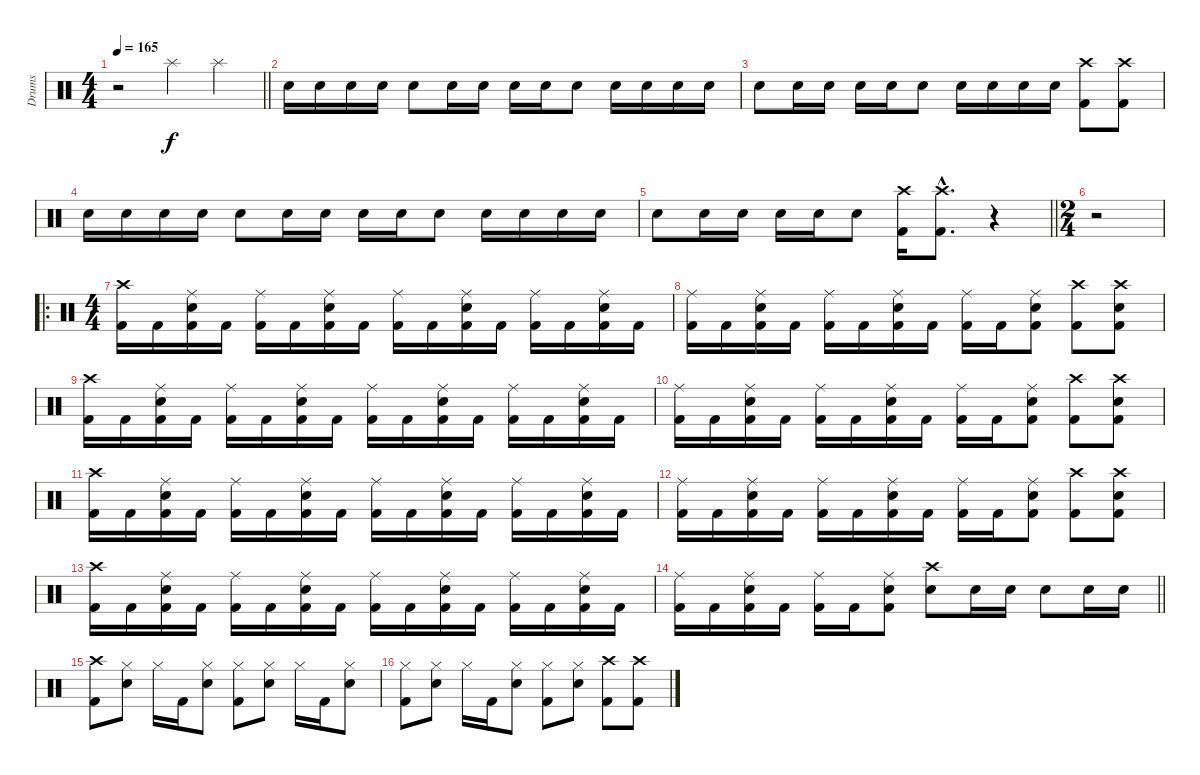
\track ("Drums" "Drums") {instrument percussion}
\staff {score}
\articulation defaults
\ts (4 4)
\tempo 165
\clef neutral
\barLineRight lightlight
\ks c
r.2{dy f} "Splash (hit)".4 "Splash (hit)".4 |
"Snare (hit) 2".16 "Snare (hit) 2".16 "Snare (hit) 2".16 "Snare (hit) 2".16 "Snare (hit) 2".8 "Snare (hit) 2".16 "Snare (hit) 2".16 "Snare (hit) 2".16 "Snare (hit) 2".16 "Snare (hit) 2".8 "Snare (hit) 2".16 "Snare (hit) 2".16 "Snare (hit) 2".16 "Snare (hit) 2".16 |
"Snare (hit) 2".8 "Snare (hit) 2".16 "Snare (hit) 2".16 "Snare (hit) 2".16 "Snare (hit) 2".16 "Snare (hit) 2".8 "Snare (hit) 2".16 "Snare (hit) 2".16 "Snare (hit) 2".16 "Snare (hit) 2".16 ("Crash high (hit)" "Kick (hit) 2").8 ("Crash high (hit)" "Kick (hit) 2").8 |
"Snare (hit) 2".16 "Snare (hit) 2".16 "Snare (hit) 2".16 "Snare (hit) 2".16 "Snare (hit) 2".8 "Snare (hit) 2".16 "Snare (hit) 2".16 "Snare (hit) 2".16 "Snare (hit) 2".16 "Snare (hit) 2".8 "Snare (hit) 2".16 "Snare (hit) 2".16 "Snare (hit) 2".16 "Snare (hit) 2".16 |
\barLineRight lightlight "Snare (hit) 2".8 "Snare (hit) 2".16 "Snare (hit) 2".16 "Snare (hit) 2".16 "Snare (hit) 2".16 "Snare (hit) 2".8
("Crash high (hit)" "Kick (hit) 2").16 ("Crash high (hit)"{hac} "Kick (hit) 2"{hac}).8{d} r.4 |
\ts (2 4)
r.2 |
\ro
\ts (4 4)
("Crash high (hit)" "Kick (hit) 2").16 "Kick (hit) 2".16 ("Ride (middle)" "Snare (hit) 2" "Kick (hit) 2").16 "Kick (hit) 2".16 ("Ride (middle)" "Kick (hit) 2").16 "Kick (hit) 2".16 ("Ride (middle)" "Snare (hit) 2" "Kick (hit) 2").16 "Kick (hit) 2".16 ("Ride (middle)" "Kick (hit) 2").16 "Kick (hit) 2".16 ("Ride (middle)" "Snare (hit) 2" "Kick (hit) 2").16 "Kick (hit) 2".16 ("Ride (middle)" "Kick (hit) 2").16 "Kick (hit) 2".16 ("Ride (middle)" "Snare (hit) 2" "Kick (hit) 2").16 "Kick (hit) 2".16 |
("Ride (middle)" "Kick (hit) 2").16 "Kick (hit) 2".16 ("Ride (middle)" "Snare (hit) 2" "Kick (hit) 2").16 "Kick (hit) 2".16 ("Ride (middle)" "Kick (hit) 2").16 "Kick (hit) 2".16 ("Ride (middle)" "Snare (hit) 2" "Kick (hit) 2").16 "Kick (hit) 2".16 ("Ride (middle)" "Kick (hit) 2").16 "Kick (hit) 2".16 ("Ride (middle)" "Snare (hit) 2" "Kick (hit) 2").8 ("Crash high (hit)" "Kick (hit) 2").8 ("Crash high (hit)" "Snare (hit) 2" "Kick (hit) 2").8 |
("Crash high (hit)" "Kick (hit) 2").16 "Kick (hit) 2".16 ("Ride (middle)" "Snare (hit) 2" "Kick (hit) 2").16 "Kick (hit) 2".16 ("Ride (middle)" "Kick (hit) 2").16 "Kick (hit) 2".16 ("Ride (middle)" "Snare (hit) 2" "Kick (hit) 2").16 "Kick (hit) 2".16 ("Ride (middle)" "Kick (hit) 2").16 "Kick (hit) 2".16 ("Ride (middle)" "Snare (hit) 2" "Kick (hit) 2").16 "Kick (hit) 2".16 ("Ride (middle)" "Kick (hit) 2").16 "Kick (hit) 2".16 ("Ride (middle)" "Snare (hit) 2" "Kick (hit) 2").16 "Kick (hit) 2".16 |
("Ride (middle)" "Kick (hit) 2").16 "Kick (hit) 2".16 ("Ride (middle)" "Snare (hit) 2" "Kick (hit) 2").16 "Kick (hit) 2".16 ("Ride (middle)" "Kick (hit) 2").16 "Kick (hit) 2".16 ("Ride (middle)" "Snare (hit) 2" "Kick (hit) 2").16 "Kick (hit) 2".16 ("Ride (middle)" "Kick (hit) 2").16 "Kick (hit) 2".16 ("Ride (middle)" "Snare (hit) 2" "Kick (hit) 2").8 ("Crash high (hit)" "Kick (hit) 2").8 ("Crash high (hit)" "Snare (hit) 2" "Kick (hit) 2").8 |
("Crash high (hit)" "Kick (hit) 2").16 "Kick (hit) 2".16 ("Ride (middle)" "Snare (hit) 2" "Kick (hit) 2").16 "Kick (hit) 2".16 ("Ride (middle)" "Kick (hit) 2").16 "Kick (hit) 2".16 ("Ride (middle)" "Snare (hit) 2" "Kick (hit) 2").16 "Kick (hit) 2".16 ("Ride (middle)" "Kick (hit) 2").16 "Kick (hit) 2".16 ("Ride (middle)" "Snare (hit) 2" "Kick (hit) 2").16 "Kick (hit) 2".16 ("Ride (middle)" "Kick (hit) 2").16 "Kick (hit) 2".16 ("Ride (middle)" "Snare (hit) 2" "Kick (hit) 2").16 "Kick (hit) 2".16 |
("Ride (middle)" "Kick (hit) 2").16 "Kick (hit) 2".16 ("Ride (middle)" "Snare (hit) 2" "Kick (hit) 2").16 "Kick (hit) 2".16 ("Ride (middle)" "Kick (hit) 2").16 "Kick (hit) 2".16 ("Ride (middle)" "Snare (hit) 2" "Kick (hit) 2").16 "Kick (hit) 2".16 ("Ride (middle)" "Kick (hit) 2").16 "Kick (hit) 2".16 ("Ride (middle)" "Snare (hit) 2" "Kick (hit) 2").8 ("Crash high (hit)" "Kick (hit) 2").8 ("Crash high (hit)" "Snare (hit) 2" "Kick (hit) 2").8 |
("Crash high (hit)" "Kick (hit) 2").16 "Kick (hit) 2".16 ("Ride (middle)" "Snare (hit) 2" "Kick (hit) 2").16 "Kick (hit) 2".16 ("Ride (middle)" "Kick (hit) 2").16 "Kick (hit) 2".16 ("Ride (middle)" "Snare (hit) 2" "Kick (hit) 2").16 "Kick (hit) 2".16 ("Ride (middle)" "Kick (hit) 2").16 "Kick (hit) 2".16 ("Ride (middle)" "Snare (hit) 2" "Kick (hit) 2").16 "Kick (hit) 2".16 ("Ride (middle)" "Kick (hit) 2").16 "Kick (hit) 2".16 ("Ride (middle)" "Snare (hit) 2" "Kick (hit) 2").16 "Kick (hit) 2".16 |
\barLineRight lightlight
("Ride (middle)" "Kick (hit) 2").16 "Kick (hit) 2".16 ("Ride (middle)" "Snare (hit) 2" "Kick (hit) 2").16 "Kick (hit) 2".16 ("Ride (middle)" "Kick (hit) 2").16 "Kick (hit) 2".16 ("Ride (middle)" "Snare (hit) 2" "Kick (hit) 2").8 ("Crash high (hit)" "Snare (hit) 2").8 "Snare (hit) 2".16 "Snare (hit) 2".16 "Snare (hit) 2".8 "Snare (hit) 2".16 "Snare (hit) 2".16 |
("Crash high (hit)" "Kick (hit) 2").8 ("Hi-Hat (closed)" "Snare (hit) 2").8 "Hi-Hat (closed)".16 "Kick (hit) 2".16 ("Hi-Hat (closed)" "Snare (hit) 2").8 ("Hi-Hat (closed)" "Kick (hit) 2").8 ("Hi-Hat (closed)" "Snare (hit) 2").8 "Hi-Hat (closed)".16 "Kick (hit) 2".16 ("Hi-Hat (closed)" "Snare (hit) 2").8 |
("Hi-Hat (closed)" "Kick (hit) 2").8 ("Hi-Hat (closed)" "Snare (hit) 2").8 "Hi-Hat (closed)".16 "Kick (hit) 2".16 ("Hi-Hat (closed)" "Snare (hit) 2").8 ("Hi-Hat (closed)" "Kick (hit) 2").8 ("Hi-Hat (closed)" "Snare (hit) 2").8 ("Crash high (hit)" "Kick (hit) 2").8 ("Crash high (hit)" "Kick (hit) 2").8
